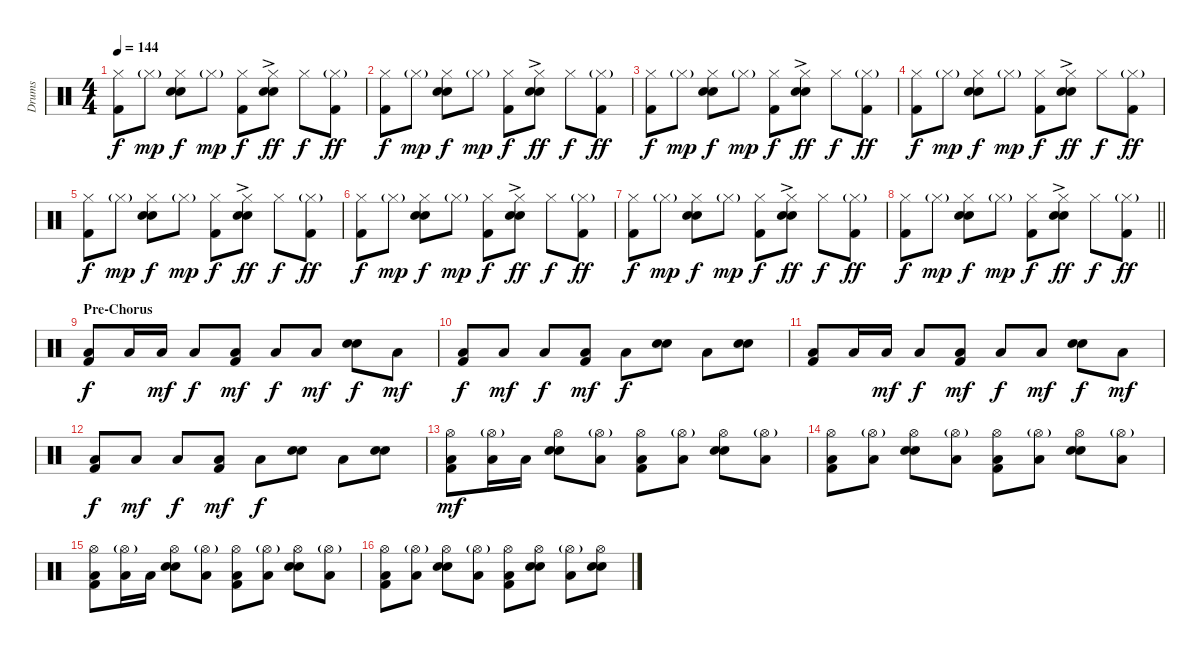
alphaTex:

\track ("Drums" "Drums") {instrument percussion}
\staff {score}
\articulation defaults
\ts (4 4)
\tempo 144
\clef neutral
\ks c
("Hi-Hat (closed)" "Kick (hit) 2").8{dy f} "Hi-Hat (closed)"{g}.8{dy mp} ("Hi-Hat (closed)" "Electric Snare (hit)" "Snare (hit) 2").8{dy f} "Hi-Hat (closed)"{g}.8{dy mp} ("Hi-Hat (closed)" "Kick (hit) 2").8{dy f} ("Hi-Hat (closed)"{ac} "Electric Snare (hit)" "Snare (hit) 2").8{dy ff} "Hi-Hat (closed)".8{dy f} ("Hi-Hat (closed)"{g} "Kick (hit) 2").8{dy ff} |
("Hi-Hat (closed)" "Kick (hit) 2").8{dy f} "Hi-Hat (closed)"{g}.8{dy mp} ("Hi-Hat (closed)" "Electric Snare (hit)" "Snare (hit) 2").8{dy f} "Hi-Hat (closed)"{g}.8{dy mp} ("Hi-Hat (closed)" "Kick (hit) 2").8{dy f} ("Hi-Hat (closed)"{ac} "Electric Snare (hit)" "Snare (hit) 2").8{dy ff} "Hi-Hat (closed)".8{dy f} ("Hi-Hat (closed)"{g} "Kick (hit) 2").8{dy ff} |
("Hi-Hat (closed)" "Kick (hit) 2").8{dy f} "Hi-Hat (closed)"{g}.8{dy mp} ("Hi-Hat (closed)" "Electric Snare (hit)" "Snare (hit) 2").8{dy f} "Hi-Hat (closed)"{g}.8{dy mp} ("Hi-Hat (closed)" "Kick (hit) 2").8{dy f} ("Hi-Hat (closed)"{ac} "Electric Snare (hit)" "Snare (hit) 2").8{dy ff} "Hi-Hat (closed)".8{dy f} ("Hi-Hat (closed)"{g} "Kick (hit) 2").8{dy ff} |
("Hi-Hat (closed)" "Kick (hit) 2").8{dy f} "Hi-Hat (closed)"{g}.8{dy mp} ("Hi-Hat (closed)" "Electric Snare (hit)" "Snare (hit) 2").8{dy f} "Hi-Hat (closed)"{g}.8{dy mp} ("Hi-Hat (closed)" "Kick (hit) 2").8{dy f} ("Hi-Hat (closed)"{ac} "Electric Snare (hit)" "Snare (hit) 2").8{dy ff} "Hi-Hat (closed)".8{dy f} ("Hi-Hat (closed)"{g} "Kick (hit) 2").8{dy ff} |
("Hi-Hat (closed)" "Kick (hit) 2").8{dy f} "Hi-Hat (closed)"{g}.8{dy mp} ("Hi-Hat (closed)" "Electric Snare (hit)" "Snare (hit) 2").8{dy f} "Hi-Hat (closed)"{g}.8{dy mp} ("Hi-Hat (closed)" "Kick (hit) 2").8{dy f} ("Hi-Hat (closed)"{ac} "Electric Snare (hit)" "Snare (hit) 2").8{dy ff} "Hi-Hat (closed)".8{dy f} ("Hi-Hat (closed)"{g} "Kick (hit) 2").8{dy ff} |
("Hi-Hat (closed)" "Kick (hit) 2").8{dy f} "Hi-Hat (closed)"{g}.8{dy mp} ("Hi-Hat (closed)" "Electric Snare (hit)" "Snare (hit) 2").8{dy f} "Hi-Hat (closed)"{g}.8{dy mp} ("Hi-Hat (closed)" "Kick (hit) 2").8{dy f} ("Hi-Hat (closed)"{ac} "Electric Snare (hit)" "Snare (hit) 2").8{dy ff} "Hi-Hat (closed)".8{dy f} ("Hi-Hat (closed)"{g} "Kick (hit) 2").8{dy ff} |
("Hi-Hat (closed)" "Kick (hit) 2").8{dy f} "Hi-Hat (closed)"{g}.8{dy mp} ("Hi-Hat (closed)" "Electric Snare (hit)" "Snare (hit) 2").8{dy f} "Hi-Hat (closed)"{g}.8{dy mp} ("Hi-Hat (closed)" "Kick (hit) 2").8{dy f} ("Hi-Hat (closed)"{ac} "Electric Snare (hit)" "Snare (hit) 2").8{dy ff} "Hi-Hat (closed)".8{dy f} ("Hi-Hat (closed)"{g} "Kick (hit) 2").8{dy ff} |
\barLineRight lightlight
("Hi-Hat (closed)" "Kick (hit) 2").8{dy f} "Hi-Hat (closed)"{g}.8{dy mp} ("Hi-Hat (closed)" "Electric Snare (hit)" "Snare (hit) 2").8{dy f} "Hi-Hat (closed)"{g}.8{dy mp} ("Hi-Hat (closed)" "Kick (hit) 2").8{dy f} ("Hi-Hat (closed)"{ac} "Electric Snare (hit)" "Snare (hit) 2").8{dy ff} "Hi-Hat (closed)".8{dy f} ("Hi-Hat (closed)"{g} "Kick (hit) 2").8{dy ff} |
\section ("" "Pre-Chorus")
("Low Tom (hit)" "Kick (hit) 2").8{dy f} "Low Tom (hit)".16 "Low Tom (hit)".16{dy mf} "Low Tom (hit)".8{dy f} ("Low Tom (hit)" "Kick (hit) 2").8{dy mf} "Low Tom (hit)".8{dy f} "Low Tom (hit)".8{dy mf} ("Electric Snare (hit)" "Snare (hit) 2").8{dy f} "Low Tom (hit)".8{dy mf} |
("Low Tom (hit)" "Kick (hit) 2").8{dy f} "Low Tom (hit)".8{dy mf} "Low Tom (hit)".8{dy f} ("Low Tom (hit)" "Kick (hit) 2").8{dy mf} "Low Tom (hit)".8{dy f} ("Electric Snare (hit)" "Snare (hit) 2").8 "Low Tom (hit)".8 ("Electric Snare (hit)" "Snare (hit) 2").8 |
("Low Tom (hit)" "Kick (hit) 2").8 "Low Tom (hit)".16 "Low Tom (hit)".16{dy mf} "Low Tom (hit)".8{dy f} ("Low Tom (hit)" "Kick (hit) 2").8{dy mf} "Low Tom (hit)".8{dy f} "Low Tom (hit)".8{dy mf} ("Electric Snare (hit)" "Snare (hit) 2").8{dy f} "Low Tom (hit)".8{dy mf} |
("Low Tom (hit)" "Kick (hit) 2").8{dy f} "Low Tom (hit)".8{dy mf} "Low Tom (hit)".8{dy f} ("Low Tom (hit)" "Kick (hit) 2").8{dy mf} "Low Tom (hit)".8{dy f} ("Electric Snare (hit)" "Snare (hit) 2").8 "Low Tom (hit)".8 ("Electric Snare (hit)" "Snare (hit) 2").8 |
("Hi-Hat (open)" "Low Tom (hit)" "Kick (hit) 2").8{dy mf} ("Hi-Hat (open)"{g} "Low Tom (hit)").16 "Low Tom (hit)".16 ("Hi-Hat (open)" "Electric Snare (hit)" "Snare (hit) 2").8 ("Hi-Hat (open)"{g} "Low Tom (hit)").8 ("Hi-Hat (open)" "Low Tom (hit)" "Kick (hit) 2").8 ("Hi-Hat (open)"{g} "Low Tom (hit)").8 ("Hi-Hat (open)" "Electric Snare (hit)" "Snare (hit) 2").8 ("Hi-Hat (open)"{g} "Low Tom (hit)").8 |
("Hi-Hat (open)" "Low Tom (hit)" "Kick (hit) 2").8 ("Hi-Hat (open)"{g} "Low Tom (hit)").8 ("Hi-Hat (open)" "Electric Snare (hit)" "Snare (hit) 2").8 ("Hi-Hat (open)"{g} "Low Tom (hit)").8 ("Hi-Hat (open)" "Low Tom (hit)" "Kick (hit) 2").8 ("Hi-Hat (open)"{g} "Low Tom (hit)").8 ("Hi-Hat (open)" "Electric Snare (hit)" "Snare (hit) 2").8 ("Hi-Hat (open)"{g} "Low Tom (hit)").8 |
("Hi-Hat (open)" "Low Tom (hit)" "Kick (hit) 2").8 ("Hi-Hat (open)"{g} "Low Tom (hit)").16 "Low Tom (hit)".16 ("Hi-Hat (open)" "Electric Snare (hit)" "Snare (hit) 2").8 ("Hi-Hat (open)"{g} "Low Tom (hit)").8 ("Hi-Hat (open)" "Low Tom (hit)" "Kick (hit) 2").8 ("Hi-Hat (open)"{g} "Low Tom (hit)").8 ("Hi-Hat (open)" "Electric Snare (hit)" "Snare (hit) 2").8 ("Hi-Hat (open)"{g} "Low Tom (hit)").8 |
("Hi-Hat (open)" "Low Tom (hit)" "Kick (hit) 2").8 ("Hi-Hat (open)"{g} "Low Tom (hit)").8 ("Hi-Hat (open)" "Electric Snare (hit)" "Snare (hit) 2").8 ("Hi-Hat (open)"{g} "Low Tom (hit)").8 ("Hi-Hat (open)" "Low Tom (hit)" "Kick (hit) 2").8 ("Hi-Hat (open)" "Electric Snare (hit)" "Snare (hit) 2").8 ("Hi-Hat (open)"{g} "Low Tom (hit)").8 ("Hi-Hat (open)" "Electric Snare (hit)" "Snare (hit) 2").8
